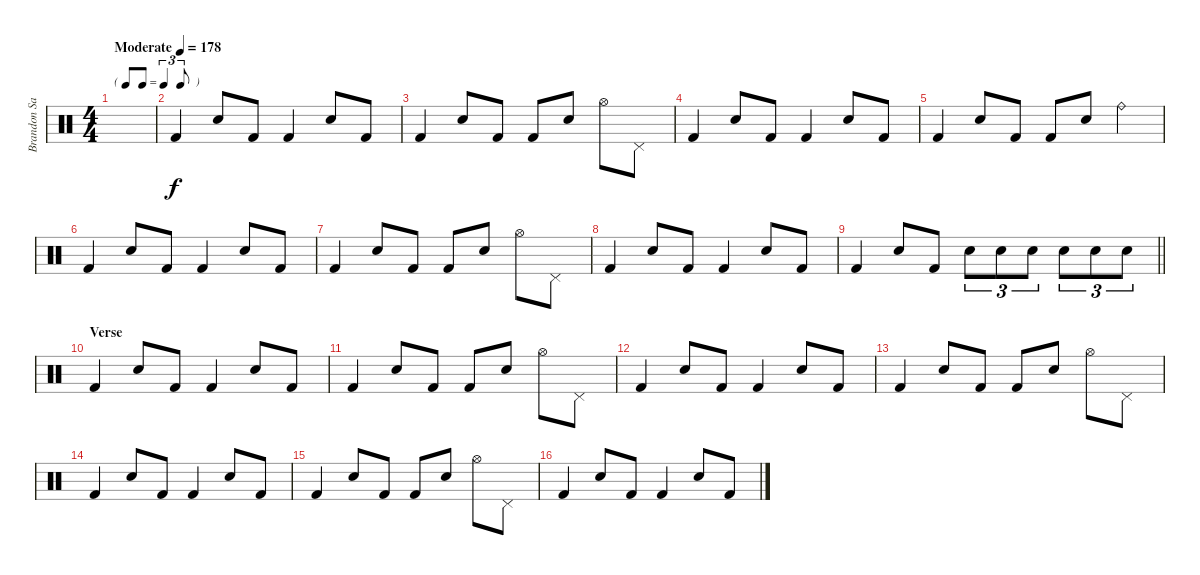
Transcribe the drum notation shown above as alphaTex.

\track ("Brandon Saller" "Brandon Sa") {instrument percussion}
\staff {score}
\articulation defaults
\ts (4 4)
\tf triplet8th
\tempo (178 "Moderate")
\clef neutral
\ks c
|
"Kick (hit) 2".4 "Electric Snare (hit)".8 "Kick (hit) 2".8 "Kick (hit) 2".4 "Electric Snare (hit)".8 "Kick (hit) 2".8 |
"Kick (hit) 2".4 "Electric Snare (hit)".8 "Kick (hit) 2".8 "Kick (hit) 2".8 "Electric Snare (hit)".8 "Hi-Hat (open)".8 "Pedal Hi-Hat (hit)".8 |
"Kick (hit) 2".4 "Electric Snare (hit)".8 "Kick (hit) 2".8 "Kick (hit) 2".4 "Electric Snare (hit)".8 "Kick (hit) 2".8 |
"Kick (hit) 2".4 "Electric Snare (hit)".8 "Kick (hit) 2".8 "Kick (hit) 2".8 "Electric Snare (hit)".8 "Ride (bell)".4 |
"Kick (hit) 2".4 "Electric Snare (hit)".8 "Kick (hit) 2".8 "Kick (hit) 2".4 "Electric Snare (hit)".8 "Kick (hit) 2".8 |
"Kick (hit) 2".4 "Electric Snare (hit)".8 "Kick (hit) 2".8 "Kick (hit) 2".8 "Electric Snare (hit)".8 "Hi-Hat (open)".8 "Pedal Hi-Hat (hit)".8 |
"Kick (hit) 2".4 "Electric Snare (hit)".8 "Kick (hit) 2".8 "Kick (hit) 2".4 "Electric Snare (hit)".8 "Kick (hit) 2".8 |
\barLineRight lightlight "Kick (hit) 2".4 "Electric Snare (hit)".8 "Kick (hit) 2".8 "Electric Snare (hit)".8{tu (3 2)} "Electric Snare (hit)".8{tu (3 2)} "Electric Snare (hit)".8{tu (3 2)} "Electric Snare (hit)".8{tu (3 2)} "Electric Snare (hit)".8{tu (3 2)} "Electric Snare (hit)".8{tu (3 2)}
|
\section ("" "Verse")
"Kick (hit) 2".4 "Electric Snare (hit)".8 "Kick (hit) 2".8 "Kick (hit) 2".4 "Electric Snare (hit)".8 "Kick (hit) 2".8 |
"Kick (hit) 2".4 "Electric Snare (hit)".8 "Kick (hit) 2".8 "Kick (hit) 2".8 "Electric Snare (hit)".8 "Hi-Hat (open)".8 "Pedal Hi-Hat (hit)".8 |
"Kick (hit) 2".4 "Electric Snare (hit)".8 "Kick (hit) 2".8 "Kick (hit) 2".4 "Electric Snare (hit)".8 "Kick (hit) 2".8 |
"Kick (hit) 2".4 "Electric Snare (hit)".8 "Kick (hit) 2".8 "Kick (hit) 2".8 "Electric Snare (hit)".8 "Hi-Hat (open)".8 "Pedal Hi-Hat (hit)".8 |
"Kick (hit) 2".4 "Electric Snare (hit)".8 "Kick (hit) 2".8 "Kick (hit) 2".4 "Electric Snare (hit)".8 "Kick (hit) 2".8 |
"Kick (hit) 2".4 "Electric Snare (hit)".8 "Kick (hit) 2".8 "Kick (hit) 2".8 "Electric Snare (hit)".8 "Hi-Hat (open)".8 "Pedal Hi-Hat (hit)".8 |
"Kick (hit) 2".4 "Electric Snare (hit)".8 "Kick (hit) 2".8 "Kick (hit) 2".4 "Electric Snare (hit)".8 "Kick (hit) 2".8
